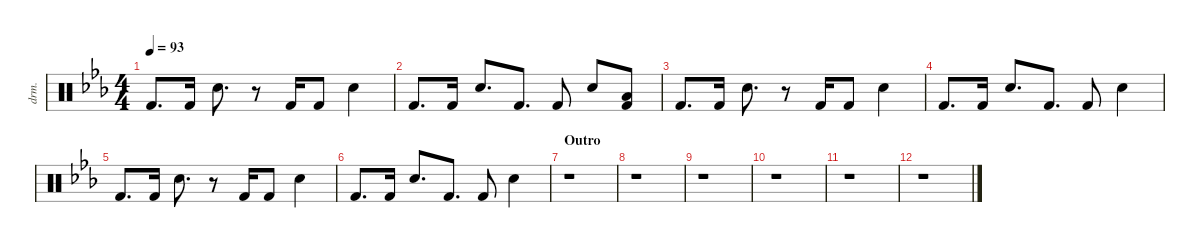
\defaultSystemsLayout 4
\hideDynamics
\bracketExtendMode nobrackets
\otherSystemsTrackNameOrientation horizontal
\track ("Drumkit" "drm.") {instrument percussion}
\staff {score}
\articulation defaults
\ts (4 4)
\tempo 93
\clef neutral
\ks cminor "Kick (hit) 2"{acc forcenatural}.8{d dy mf} "Kick (hit) 2"{acc forcenatural}.16 "Snare (hit) 2"{acc forcenatural}.8{d}
r.8 "Kick (hit) 2"{acc forcenatural}.16 "Kick (hit) 2"{acc forcenatural}.8 "Snare (hit) 2"{acc forcenatural}.4 |
"Kick (hit) 2"{acc forcenatural}.8{d} "Kick (hit) 2"{acc forcenatural}.16 "Snare (hit) 2"{acc forcenatural}.8{d} "Kick (hit) 2"{acc forcenatural}.8{d} "Kick (hit) 2"{acc forcenatural}.8 "Snare (hit) 2"{acc forcenatural}.8 ("Low Tom (hit)"{acc forcenatural} "Kick (hit) 2"{acc forcenatural}).8 |
"Kick (hit) 2"{acc forcenatural}.8{d} "Kick (hit) 2"{acc forcenatural}.16 "Snare (hit) 2"{acc forcenatural}.8{d} r.8 "Kick (hit) 2"{acc forcenatural}.16 "Kick (hit) 2"{acc forcenatural}.8 "Snare (hit) 2"{acc forcenatural}.4 |
"Kick (hit) 2"{acc forcenatural}.8{d} "Kick (hit) 2"{acc forcenatural}.16 "Snare (hit) 2"{acc forcenatural}.8{d} "Kick (hit) 2"{acc forcenatural}.8{d} "Kick (hit) 2"{acc forcenatural}.8 "Snare (hit) 2"{acc forcenatural}.4 |
"Kick (hit) 2"{acc forcenatural}.8{d} "Kick (hit) 2"{acc forcenatural}.16 "Snare (hit) 2"{acc forcenatural}.8{d} r.8 "Kick (hit) 2"{acc forcenatural}.16 "Kick (hit) 2"{acc forcenatural}.8 "Snare (hit) 2"{acc forcenatural}.4 |
"Kick (hit) 2"{acc forcenatural}.8{d} "Kick (hit) 2"{acc forcenatural}.16 "Snare (hit) 2"{acc forcenatural}.8{d} "Kick (hit) 2"{acc forcenatural}.8{d} "Kick (hit) 2"{acc forcenatural}.8 "Snare (hit) 2"{acc forcenatural}.4 |
\section ("" "Outro")
r.1 |
r.1 |
r.1 |
r.1 |
r.1 |
r.1
